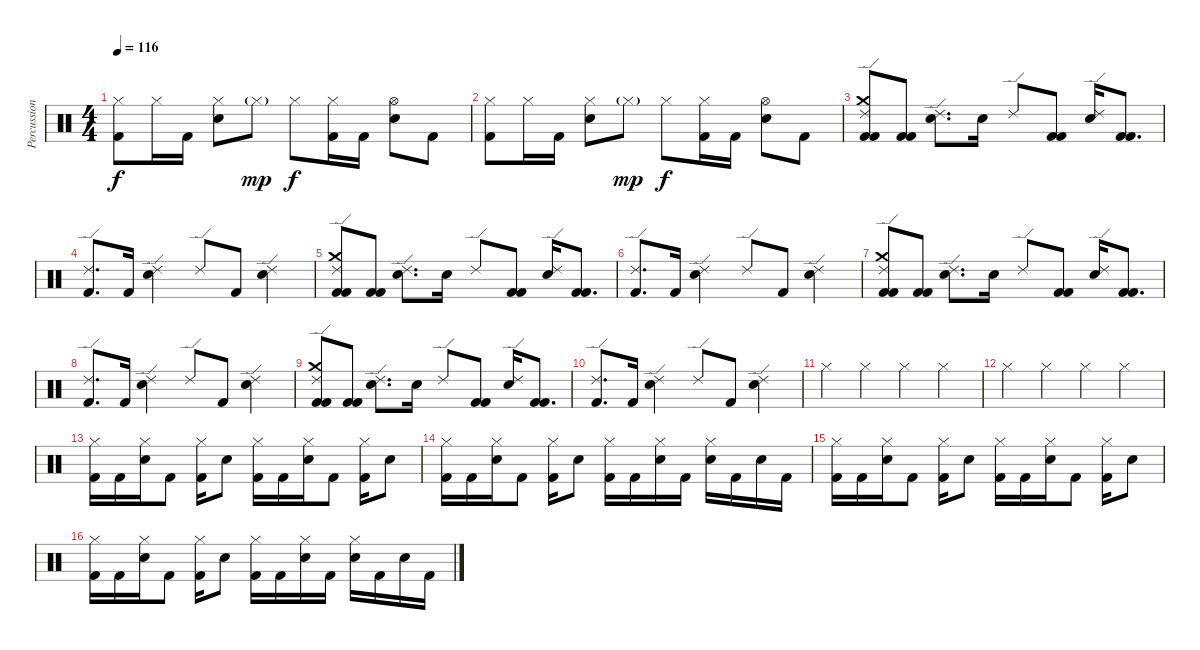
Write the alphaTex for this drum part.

\track ("Percussion" "Percussion") {instrument percussion}
\staff {score}
\articulation defaults
\ts (4 4)
\tempo 116
\clef neutral
\ks c
("Hi-Hat (closed)" "Kick (hit) 2").8{dy f} "Hi-Hat (closed)".16 "Kick (hit) 2".16 ("Hi-Hat (closed)" "Snare (hit) 2").8 "Hi-Hat (closed)"{g}.8{dy mp} "Hi-Hat (closed)".8{dy f} ("Hi-Hat (closed)" "Kick (hit) 2").16 "Kick (hit) 2".16 ("Hi-Hat (open)" "Snare (hit) 2").8 "Kick (hit) 2".8 |
("Hi-Hat (closed)" "Kick (hit) 2").8 "Hi-Hat (closed)".16 "Kick (hit) 2".16 ("Hi-Hat (closed)" "Snare (hit) 2").8 "Hi-Hat (closed)"{g}.8{dy mp} "Hi-Hat (closed)".8{dy f} ("Hi-Hat (closed)" "Kick (hit) 2").16 "Kick (hit) 2".16 ("Hi-Hat (open)" "Snare (hit) 2").8 "Kick (hit) 2".8 |
("Crash medium (hit)" "Ride (edge) 2" "Kick (hit) 2" "Kick (hit) 2").8 ("Kick (hit) 2" "Kick (hit) 2").8 ("Ride (edge) 2" "Snare (hit) 2").8{d} "Snare (hit) 2".16 "Ride (edge) 2".8 ("Kick (hit) 2" "Kick (hit) 2").8 ("Ride (edge) 2" "Snare (hit) 2").16 ("Kick (hit) 2" "Kick (hit) 2").8{d} |
("Ride (edge) 2" "Kick (hit) 2").8{d} "Kick (hit) 2".16 ("Ride (edge) 2" "Snare (hit) 2").4 "Ride (edge) 2".8 "Kick (hit) 2".8 ("Ride (edge) 2" "Snare (hit) 2").4 |
("Crash medium (hit)" "Ride (edge) 2" "Kick (hit) 2" "Kick (hit) 2").8 ("Kick (hit) 2" "Kick (hit) 2").8 ("Ride (edge) 2" "Snare (hit) 2").8{d} "Snare (hit) 2".16 "Ride (edge) 2".8 ("Kick (hit) 2" "Kick (hit) 2").8 ("Ride (edge) 2" "Snare (hit) 2").16 ("Kick (hit) 2" "Kick (hit) 2").8{d} |
("Ride (edge) 2" "Kick (hit) 2").8{d} "Kick (hit) 2".16 ("Ride (edge) 2" "Snare (hit) 2").4 "Ride (edge) 2".8 "Kick (hit) 2".8 ("Ride (edge) 2" "Snare (hit) 2").4 |
("Crash medium (hit)" "Ride (edge) 2" "Kick (hit) 2" "Kick (hit) 2").8 ("Kick (hit) 2" "Kick (hit) 2").8 ("Ride (edge) 2" "Snare (hit) 2").8{d} "Snare (hit) 2".16 "Ride (edge) 2".8 ("Kick (hit) 2" "Kick (hit) 2").8 ("Ride (edge) 2" "Snare (hit) 2").16 ("Kick (hit) 2" "Kick (hit) 2").8{d} |
("Ride (edge) 2" "Kick (hit) 2").8{d} "Kick (hit) 2".16 ("Ride (edge) 2" "Snare (hit) 2").4 "Ride (edge) 2".8 "Kick (hit) 2".8 ("Ride (edge) 2" "Snare (hit) 2").4 |
("Crash medium (hit)" "Ride (edge) 2" "Kick (hit) 2" "Kick (hit) 2").8 ("Kick (hit) 2" "Kick (hit) 2").8 ("Ride (edge) 2" "Snare (hit) 2").8{d} "Snare (hit) 2".16 "Ride (edge) 2".8 ("Kick (hit) 2" "Kick (hit) 2").8 ("Ride (edge) 2" "Snare (hit) 2").16 ("Kick (hit) 2" "Kick (hit) 2").8{d} |
("Ride (edge) 2" "Kick (hit) 2").8{d} "Kick (hit) 2".16 ("Ride (edge) 2" "Snare (hit) 2").4 "Ride (edge) 2".8 "Kick (hit) 2".8 ("Ride (edge) 2" "Snare (hit) 2").4 |
"Hi-Hat (closed)".4 "Hi-Hat (closed)".4 "Hi-Hat (closed)".4 "Hi-Hat (closed)".4 |
"Hi-Hat (closed)".4 "Hi-Hat (closed)".4 "Hi-Hat (closed)".4 "Hi-Hat (closed)".4 |
("Hi-Hat (closed)" "Kick (hit) 2").16 "Kick (hit) 2".16 ("Hi-Hat (closed)" "Snare (hit) 2").16 "Kick (hit) 2".8 ("Hi-Hat (closed)" "Kick (hit) 2").16 "Snare (hit) 2".8 ("Hi-Hat (closed)" "Kick (hit) 2").16 "Kick (hit) 2".16 ("Hi-Hat (closed)" "Snare (hit) 2").16 "Kick (hit) 2".8 ("Hi-Hat (closed)" "Kick (hit) 2").16 "Snare (hit) 2".8 |
("Hi-Hat (closed)" "Kick (hit) 2").16 "Kick (hit) 2".16 ("Hi-Hat (closed)" "Snare (hit) 2").16 "Kick (hit) 2".8 ("Hi-Hat (closed)" "Kick (hit) 2").16 "Snare (hit) 2".8 ("Hi-Hat (closed)" "Kick (hit) 2").16 "Kick (hit) 2".16 ("Hi-Hat (closed)" "Snare (hit) 2").16 "Kick (hit) 2".16 ("Hi-Hat (closed)" "Snare (hit) 2").16 "Kick (hit) 2".16 "Snare (hit) 2".16 "Kick (hit) 2".16 |
("Hi-Hat (closed)" "Kick (hit) 2").16 "Kick (hit) 2".16 ("Hi-Hat (closed)" "Snare (hit) 2").16 "Kick (hit) 2".8 ("Hi-Hat (closed)" "Kick (hit) 2").16 "Snare (hit) 2".8 ("Hi-Hat (closed)" "Kick (hit) 2").16 "Kick (hit) 2".16 ("Hi-Hat (closed)" "Snare (hit) 2").16 "Kick (hit) 2".8 ("Hi-Hat (closed)" "Kick (hit) 2").16 "Snare (hit) 2".8 |
("Hi-Hat (closed)" "Kick (hit) 2").16 "Kick (hit) 2".16 ("Hi-Hat (closed)" "Snare (hit) 2").16 "Kick (hit) 2".8 ("Hi-Hat (closed)" "Kick (hit) 2").16 "Snare (hit) 2".8 ("Hi-Hat (closed)" "Kick (hit) 2").16 "Kick (hit) 2".16 ("Hi-Hat (closed)" "Snare (hit) 2").16 "Kick (hit) 2".16 ("Hi-Hat (closed)" "Snare (hit) 2").16 "Kick (hit) 2".16 "Snare (hit) 2".16 "Kick (hit) 2".16
